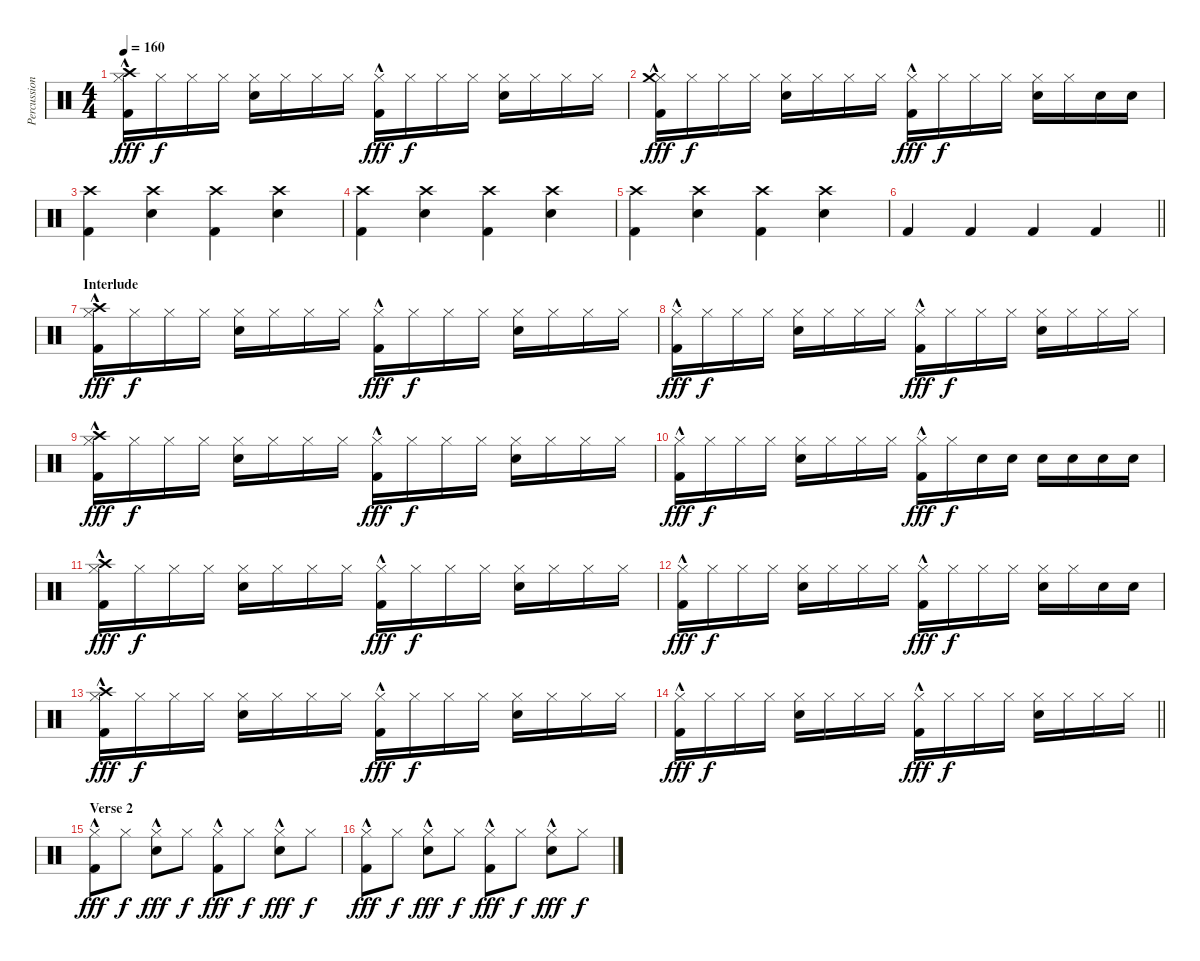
\track ("Percussion" "Percussion") {instrument percussion}
\staff {score}
\articulation defaults
\ts (4 4)
\tempo 160
\clef neutral
\ks c
("Hi-Hat (closed)"{hac} "Crash high (hit)" "Kick (hit) 2").16{dy fff} "Hi-Hat (closed)".16{dy f} "Hi-Hat (closed)".16 "Hi-Hat (closed)".16 ("Hi-Hat (closed)" "Snare (hit) 2").16 "Hi-Hat (closed)".16 "Hi-Hat (closed)".16 "Hi-Hat (closed)".16 ("Hi-Hat (closed)"{hac} "Kick (hit) 2").16{dy fff} "Hi-Hat (closed)".16{dy f} "Hi-Hat (closed)".16 "Hi-Hat (closed)".16 ("Hi-Hat (closed)" "Snare (hit) 2").16 "Hi-Hat (closed)".16 "Hi-Hat (closed)".16 "Hi-Hat (closed)".16 |
("Hi-Hat (closed)"{hac} "Crash medium (hit)" "Kick (hit) 2").16{dy fff} "Hi-Hat (closed)".16{dy f} "Hi-Hat (closed)".16 "Hi-Hat (closed)".16 ("Hi-Hat (closed)" "Snare (hit) 2").16 "Hi-Hat (closed)".16 "Hi-Hat (closed)".16 "Hi-Hat (closed)".16 ("Hi-Hat (closed)"{hac} "Kick (hit) 2").16{dy fff} "Hi-Hat (closed)".16{dy f} "Hi-Hat (closed)".16 "Hi-Hat (closed)".16 ("Hi-Hat (closed)" "Snare (hit) 2").16 "Hi-Hat (closed)".16 "Snare (hit) 2".16 "Snare (hit) 2".16 |
("Crash high (hit)" "Kick (hit) 2").4 ("Crash high (hit)" "Snare (hit) 2").4 ("Crash high (hit)" "Kick (hit) 2").4 ("Crash high (hit)" "Snare (hit) 2").4 |
("Crash high (hit)" "Kick (hit) 2").4 ("Crash high (hit)" "Snare (hit) 2").4 ("Crash high (hit)" "Kick (hit) 2").4 ("Crash high (hit)" "Snare (hit) 2").4 |
("Crash high (hit)" "Kick (hit) 2").4 ("Crash high (hit)" "Snare (hit) 2").4 ("Crash high (hit)" "Kick (hit) 2").4 ("Crash high (hit)" "Snare (hit) 2").4 |
\barLineRight lightlight "Kick (hit) 2".4 "Kick (hit) 2".4 "Kick (hit) 2".4 "Kick (hit) 2".4
|
\section ("" "Interlude")
("Hi-Hat (closed)"{hac} "Crash high (hit)" "Kick (hit) 2").16{dy fff} "Hi-Hat (closed)".16{dy f} "Hi-Hat (closed)".16 "Hi-Hat (closed)".16 ("Hi-Hat (closed)" "Snare (hit) 2").16 "Hi-Hat (closed)".16 "Hi-Hat (closed)".16 "Hi-Hat (closed)".16 ("Hi-Hat (closed)"{hac} "Kick (hit) 2").16{dy fff} "Hi-Hat (closed)".16{dy f} "Hi-Hat (closed)".16 "Hi-Hat (closed)".16 ("Hi-Hat (closed)" "Snare (hit) 2").16 "Hi-Hat (closed)".16 "Hi-Hat (closed)".16 "Hi-Hat (closed)".16 |
("Hi-Hat (closed)"{hac} "Kick (hit) 2").16{dy fff} "Hi-Hat (closed)".16{dy f} "Hi-Hat (closed)".16 "Hi-Hat (closed)".16 ("Hi-Hat (closed)" "Snare (hit) 2").16 "Hi-Hat (closed)".16 "Hi-Hat (closed)".16 "Hi-Hat (closed)".16 ("Hi-Hat (closed)"{hac} "Kick (hit) 2").16{dy fff} "Hi-Hat (closed)".16{dy f} "Hi-Hat (closed)".16 "Hi-Hat (closed)".16 ("Hi-Hat (closed)" "Snare (hit) 2").16 "Hi-Hat (closed)".16 "Hi-Hat (closed)".16 "Hi-Hat (closed)".16 |
("Hi-Hat (closed)"{hac} "Crash high (hit)" "Kick (hit) 2").16{dy fff} "Hi-Hat (closed)".16{dy f} "Hi-Hat (closed)".16 "Hi-Hat (closed)".16 ("Hi-Hat (closed)" "Snare (hit) 2").16 "Hi-Hat (closed)".16 "Hi-Hat (closed)".16 "Hi-Hat (closed)".16 ("Hi-Hat (closed)"{hac} "Kick (hit) 2").16{dy fff} "Hi-Hat (closed)".16{dy f} "Hi-Hat (closed)".16 "Hi-Hat (closed)".16 ("Hi-Hat (closed)" "Snare (hit) 2").16 "Hi-Hat (closed)".16 "Hi-Hat (closed)".16 "Hi-Hat (closed)".16 |
("Hi-Hat (closed)"{hac} "Kick (hit) 2").16{dy fff} "Hi-Hat (closed)".16{dy f} "Hi-Hat (closed)".16 "Hi-Hat (closed)".16 ("Hi-Hat (closed)" "Snare (hit) 2").16 "Hi-Hat (closed)".16 "Hi-Hat (closed)".16 "Hi-Hat (closed)".16 ("Hi-Hat (closed)"{hac} "Kick (hit) 2").16{dy fff} "Hi-Hat (closed)".16{dy f} "Snare (hit) 2".16 "Snare (hit) 2".16 "Snare (hit) 2".16 "Snare (hit) 2".16 "Snare (hit) 2".16 "Snare (hit) 2".16 |
("Hi-Hat (closed)"{hac} "Crash high (hit)" "Kick (hit) 2").16{dy fff} "Hi-Hat (closed)".16{dy f} "Hi-Hat (closed)".16 "Hi-Hat (closed)".16 ("Hi-Hat (closed)" "Snare (hit) 2").16 "Hi-Hat (closed)".16 "Hi-Hat (closed)".16 "Hi-Hat (closed)".16 ("Hi-Hat (closed)"{hac} "Kick (hit) 2").16{dy fff} "Hi-Hat (closed)".16{dy f} "Hi-Hat (closed)".16 "Hi-Hat (closed)".16 ("Hi-Hat (closed)" "Snare (hit) 2").16 "Hi-Hat (closed)".16 "Hi-Hat (closed)".16 "Hi-Hat (closed)".16 |
("Hi-Hat (closed)"{hac} "Kick (hit) 2").16{dy fff} "Hi-Hat (closed)".16{dy f} "Hi-Hat (closed)".16 "Hi-Hat (closed)".16 ("Hi-Hat (closed)" "Snare (hit) 2").16 "Hi-Hat (closed)".16 "Hi-Hat (closed)".16 "Hi-Hat (closed)".16 ("Hi-Hat (closed)"{hac} "Kick (hit) 2").16{dy fff} "Hi-Hat (closed)".16{dy f} "Hi-Hat (closed)".16 "Hi-Hat (closed)".16 ("Hi-Hat (closed)" "Snare (hit) 2").16 "Hi-Hat (closed)".16 "Snare (hit) 2".16 "Snare (hit) 2".16 |
("Hi-Hat (closed)"{hac} "Crash high (hit)" "Kick (hit) 2").16{dy fff} "Hi-Hat (closed)".16{dy f} "Hi-Hat (closed)".16 "Hi-Hat (closed)".16 ("Hi-Hat (closed)" "Snare (hit) 2").16 "Hi-Hat (closed)".16 "Hi-Hat (closed)".16 "Hi-Hat (closed)".16 ("Hi-Hat (closed)"{hac} "Kick (hit) 2").16{dy fff} "Hi-Hat (closed)".16{dy f} "Hi-Hat (closed)".16 "Hi-Hat (closed)".16 ("Hi-Hat (closed)" "Snare (hit) 2").16 "Hi-Hat (closed)".16 "Hi-Hat (closed)".16 "Hi-Hat (closed)".16 |
\barLineRight lightlight
("Hi-Hat (closed)"{hac} "Kick (hit) 2").16{dy fff} "Hi-Hat (closed)".16{dy f} "Hi-Hat (closed)".16 "Hi-Hat (closed)".16 ("Hi-Hat (closed)" "Snare (hit) 2").16 "Hi-Hat (closed)".16 "Hi-Hat (closed)".16 "Hi-Hat (closed)".16 ("Hi-Hat (closed)"{hac} "Kick (hit) 2").16{dy fff} "Hi-Hat (closed)".16{dy f} "Hi-Hat (closed)".16 "Hi-Hat (closed)".16 ("Hi-Hat (closed)" "Snare (hit) 2").16 "Hi-Hat (closed)".16 "Hi-Hat (closed)".16 "Hi-Hat (closed)".16 |
\section ("" "Verse 2")
("Hi-Hat (closed)"{hac} "Kick (hit) 2").8{dy fff} "Hi-Hat (closed)".8{dy f} ("Hi-Hat (closed)"{hac} "Snare (hit) 2").8{dy fff} "Hi-Hat (closed)".8{dy f} ("Hi-Hat (closed)"{hac} "Kick (hit) 2").8{dy fff} "Hi-Hat (closed)".8{dy f} ("Hi-Hat (closed)"{hac} "Snare (hit) 2").8{dy fff} "Hi-Hat (closed)".8{dy f} |
("Hi-Hat (closed)"{hac} "Kick (hit) 2").8{dy fff} "Hi-Hat (closed)".8{dy f} ("Hi-Hat (closed)"{hac} "Snare (hit) 2").8{dy fff} "Hi-Hat (closed)".8{dy f} ("Hi-Hat (closed)"{hac} "Kick (hit) 2").8{dy fff} "Hi-Hat (closed)".8{dy f} ("Hi-Hat (closed)"{hac} "Snare (hit) 2").8{dy fff} "Hi-Hat (closed)".8{dy f}
